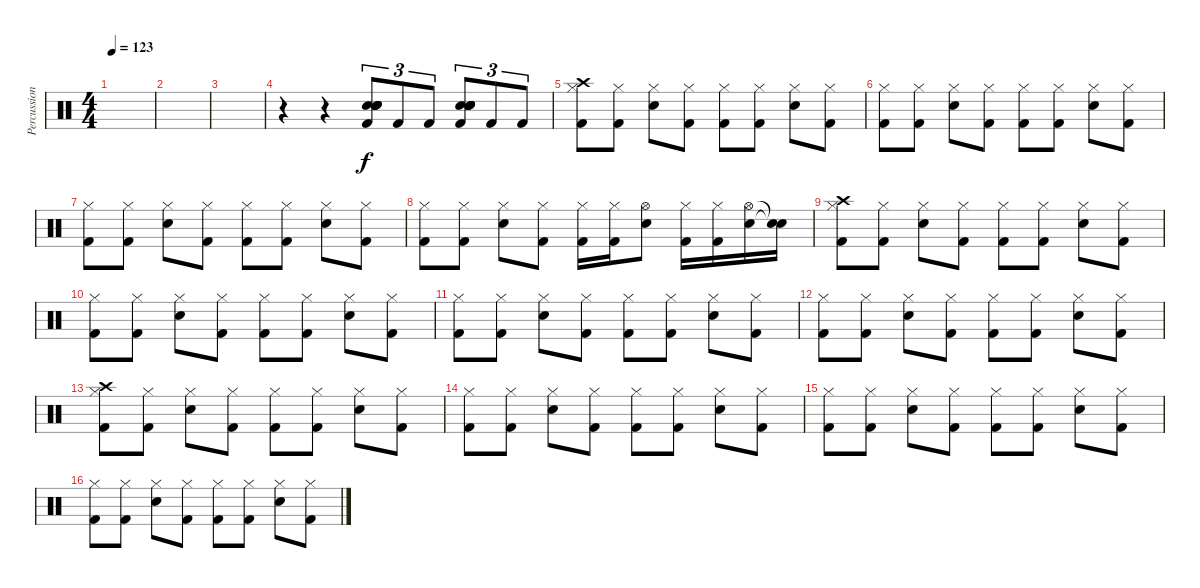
\track ("Percussion" "Percussion") {instrument percussion}
\staff {score}
\articulation defaults
\ts (4 4)
\tempo 123
\clef neutral
\ks c
|
|
|
r.4 r.4 ("Kick (hit) 2" "Electric Snare (hit)" "Electric Snare (hit)" "Electric Snare (hit)" "Electric Snare (hit)" "Electric Snare (hit)").8{tu (3 2)} "Kick (hit) 2".8{tu (3 2)} "Kick (hit) 2".8{tu (3 2)} ("Kick (hit) 2" "Electric Snare (hit)" "Electric Snare (hit)" "Electric Snare (hit)" "Electric Snare (hit)" "Electric Snare (hit)").8{tu (3 2)} "Kick (hit) 2".8{tu (3 2)} "Kick (hit) 2".8{tu (3 2)} |
("Crash high (hit)" "Kick (hit) 2" "Hi-Hat (closed)").8 ("Kick (hit) 2" "Hi-Hat (closed)").8 ("Electric Snare (hit)" "Hi-Hat (closed)").8 ("Kick (hit) 2" "Hi-Hat (closed)").8 ("Kick (hit) 2" "Hi-Hat (closed)").8 ("Kick (hit) 2" "Hi-Hat (closed)").8 ("Electric Snare (hit)" "Hi-Hat (closed)").8 ("Kick (hit) 2" "Hi-Hat (closed)").8 |
("Kick (hit) 2" "Hi-Hat (closed)").8 ("Kick (hit) 2" "Hi-Hat (closed)").8 ("Electric Snare (hit)" "Hi-Hat (closed)").8 ("Kick (hit) 2" "Hi-Hat (closed)").8 ("Kick (hit) 2" "Hi-Hat (closed)").8 ("Kick (hit) 2" "Hi-Hat (closed)").8 ("Electric Snare (hit)" "Hi-Hat (closed)").8 ("Kick (hit) 2" "Hi-Hat (closed)").8 |
("Kick (hit) 2" "Hi-Hat (closed)").8 ("Kick (hit) 2" "Hi-Hat (closed)").8 ("Electric Snare (hit)" "Hi-Hat (closed)").8 ("Kick (hit) 2" "Hi-Hat (closed)").8 ("Kick (hit) 2" "Hi-Hat (closed)").8 ("Kick (hit) 2" "Hi-Hat (closed)").8 ("Electric Snare (hit)" "Hi-Hat (closed)").8 ("Kick (hit) 2" "Hi-Hat (closed)").8 |
("Kick (hit) 2" "Hi-Hat (closed)").8 ("Kick (hit) 2" "Hi-Hat (closed)").8 ("Electric Snare (hit)" "Hi-Hat (closed)").8 ("Kick (hit) 2" "Hi-Hat (closed)").8 ("Kick (hit) 2" "Hi-Hat (closed)").16 ("Kick (hit) 2" "Hi-Hat (closed)").16 ("Electric Snare (hit)" "Hi-Hat (open)").8 ("Kick (hit) 2" "Hi-Hat (closed)").16 ("Kick (hit) 2" "Hi-Hat (closed)").16 ("Electric Snare (hit)" "Hi-Hat (open)").16 ("Snare (hit)"{t} "Snare (hit)"{t}).16 |
("Crash high (hit)" "Kick (hit) 2" "Hi-Hat (closed)").8 ("Kick (hit) 2" "Hi-Hat (closed)").8 ("Electric Snare (hit)" "Hi-Hat (closed)").8 ("Kick (hit) 2" "Hi-Hat (closed)").8 ("Kick (hit) 2" "Hi-Hat (closed)").8 ("Kick (hit) 2" "Hi-Hat (closed)").8 ("Electric Snare (hit)" "Hi-Hat (closed)").8 ("Kick (hit) 2" "Hi-Hat (closed)").8 |
("Kick (hit) 2" "Hi-Hat (closed)").8 ("Kick (hit) 2" "Hi-Hat (closed)").8 ("Electric Snare (hit)" "Hi-Hat (closed)").8 ("Kick (hit) 2" "Hi-Hat (closed)").8 ("Kick (hit) 2" "Hi-Hat (closed)").8 ("Kick (hit) 2" "Hi-Hat (closed)").8 ("Electric Snare (hit)" "Hi-Hat (closed)").8 ("Kick (hit) 2" "Hi-Hat (closed)").8 |
("Kick (hit) 2" "Hi-Hat (closed)").8 ("Kick (hit) 2" "Hi-Hat (closed)").8 ("Electric Snare (hit)" "Hi-Hat (closed)").8 ("Kick (hit) 2" "Hi-Hat (closed)").8 ("Kick (hit) 2" "Hi-Hat (closed)").8 ("Kick (hit) 2" "Hi-Hat (closed)").8 ("Electric Snare (hit)" "Hi-Hat (closed)").8 ("Kick (hit) 2" "Hi-Hat (closed)").8 |
("Kick (hit) 2" "Hi-Hat (closed)").8 ("Kick (hit) 2" "Hi-Hat (closed)").8 ("Electric Snare (hit)" "Hi-Hat (closed)").8 ("Kick (hit) 2" "Hi-Hat (closed)").8 ("Kick (hit) 2" "Hi-Hat (closed)").8 ("Kick (hit) 2" "Hi-Hat (closed)").8 ("Electric Snare (hit)" "Hi-Hat (closed)").8 ("Kick (hit) 2" "Hi-Hat (closed)").8 |
("Crash high (hit)" "Kick (hit) 2" "Hi-Hat (closed)").8 ("Kick (hit) 2" "Hi-Hat (closed)").8 ("Electric Snare (hit)" "Hi-Hat (closed)").8 ("Kick (hit) 2" "Hi-Hat (closed)").8 ("Kick (hit) 2" "Hi-Hat (closed)").8 ("Kick (hit) 2" "Hi-Hat (closed)").8 ("Electric Snare (hit)" "Hi-Hat (closed)").8 ("Kick (hit) 2" "Hi-Hat (closed)").8 |
("Kick (hit) 2" "Hi-Hat (closed)").8 ("Kick (hit) 2" "Hi-Hat (closed)").8 ("Electric Snare (hit)" "Hi-Hat (closed)").8 ("Kick (hit) 2" "Hi-Hat (closed)").8 ("Kick (hit) 2" "Hi-Hat (closed)").8 ("Kick (hit) 2" "Hi-Hat (closed)").8 ("Electric Snare (hit)" "Hi-Hat (closed)").8 ("Kick (hit) 2" "Hi-Hat (closed)").8 |
("Kick (hit) 2" "Hi-Hat (closed)").8 ("Kick (hit) 2" "Hi-Hat (closed)").8 ("Electric Snare (hit)" "Hi-Hat (closed)").8 ("Kick (hit) 2" "Hi-Hat (closed)").8 ("Kick (hit) 2" "Hi-Hat (closed)").8 ("Kick (hit) 2" "Hi-Hat (closed)").8 ("Electric Snare (hit)" "Hi-Hat (closed)").8 ("Kick (hit) 2" "Hi-Hat (closed)").8 |
("Kick (hit) 2" "Hi-Hat (closed)").8 ("Kick (hit) 2" "Hi-Hat (closed)").8 ("Electric Snare (hit)" "Hi-Hat (closed)").8 ("Kick (hit) 2" "Hi-Hat (closed)").8 ("Kick (hit) 2" "Hi-Hat (closed)").8 ("Kick (hit) 2" "Hi-Hat (closed)").8 ("Electric Snare (hit)" "Hi-Hat (closed)").8 ("Kick (hit) 2" "Hi-Hat (closed)").8
